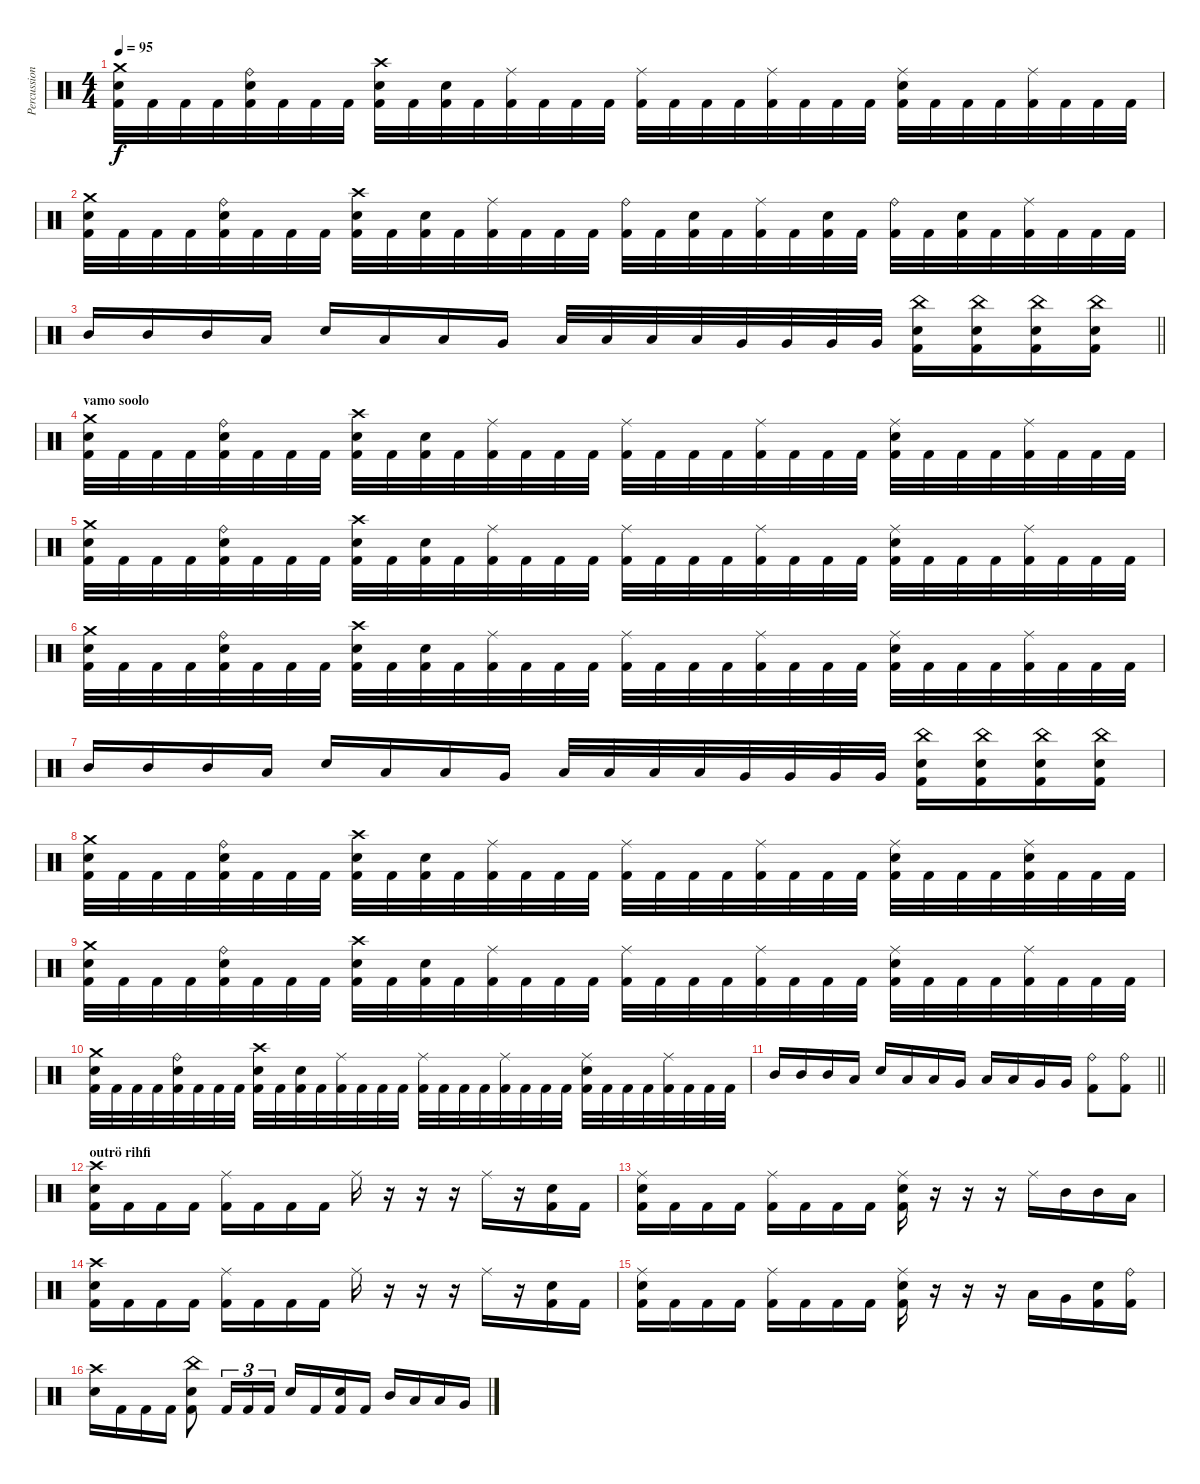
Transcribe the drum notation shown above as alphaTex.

\track ("Percussion" "Percussion") {instrument percussion}
\staff {score}
\articulation defaults
\ts (4 4)
\tempo 95
\clef neutral
\ks c
("Crash medium (hit)" "Electric Snare (hit)" "Kick (hit) 2").32{dy f} "Kick (hit) 2".32 "Kick (hit) 2".32 "Kick (hit) 2".32 ("Ride (bell)" "Electric Snare (hit)" "Kick (hit) 2").32 "Kick (hit) 2".32 "Kick (hit) 2".32 "Kick (hit) 2".32 ("Crash high (hit)" "Electric Snare (hit)" "Kick (hit) 2").32 "Kick (hit) 2".32 ("Electric Snare (hit)" "Kick (hit) 2").32 "Kick (hit) 2".32 ("Ride (middle)" "Kick (hit) 2").32 "Kick (hit) 2".32 "Kick (hit) 2".32 "Kick (hit) 2".32 ("Ride (middle)" "Kick (hit) 2").32 "Kick (hit) 2".32 "Kick (hit) 2".32 "Kick (hit) 2".32 ("Ride (middle)" "Kick (hit) 2").32 "Kick (hit) 2".32 "Kick (hit) 2".32 "Kick (hit) 2".32 ("Ride (middle)" "Electric Snare (hit)" "Kick (hit) 2").32 "Kick (hit) 2".32 "Kick (hit) 2".32 "Kick (hit) 2".32 ("Ride (middle)" "Kick (hit) 2").32 "Kick (hit) 2".32 "Kick (hit) 2".32 "Kick (hit) 2".32 |
("Crash medium (hit)" "Electric Snare (hit)" "Kick (hit) 2").32 "Kick (hit) 2".32 "Kick (hit) 2".32 "Kick (hit) 2".32 ("Ride (bell)" "Electric Snare (hit)" "Kick (hit) 2").32 "Kick (hit) 2".32 "Kick (hit) 2".32 "Kick (hit) 2".32 ("Crash high (hit)" "Electric Snare (hit)" "Kick (hit) 2").32 "Kick (hit) 2".32 ("Electric Snare (hit)" "Kick (hit) 2").32 "Kick (hit) 2".32 ("Ride (middle)" "Kick (hit) 2").32 "Kick (hit) 2".32 "Kick (hit) 2".32 "Kick (hit) 2".32 ("Ride (bell)" "Kick (hit) 2").32 "Kick (hit) 2".32 ("Electric Snare (hit)" "Kick (hit) 2").32 "Kick (hit) 2".32 ("Ride (middle)" "Kick (hit) 2").32 "Kick (hit) 2".32 ("Electric Snare (hit)" "Kick (hit) 2").32 "Kick (hit) 2".32 ("Ride (bell)" "Kick (hit) 2").32 "Kick (hit) 2".32 ("Electric Snare (hit)" "Kick (hit) 2").32 "Kick (hit) 2".32 ("Ride (middle)" "Kick (hit) 2").32 "Kick (hit) 2".32 "Kick (hit) 2".32 "Kick (hit) 2".32 |
\barLineRight lightlight "Mid Tom (hit)".16 "Mid Tom (hit)".16 "Mid Tom (hit)".16 "Low Tom (hit)".16 "Electric Snare (hit)".16 "Low Tom (hit)".16 "Low Tom (hit)".16 "Very Low Tom (hit)".16 "Low Tom (hit)".32 "Low Tom (hit)".32 "Low Tom (hit)".32 "Low Tom (hit)".32 "Very Low Tom (hit)".32 "Very Low Tom (hit)".32 "Very Low Tom (hit)".32 "Very Low Tom (hit)".32
("China (hit)" "Electric Snare (hit)" "Kick (hit) 2").16 ("China (hit)" "Electric Snare (hit)" "Kick (hit) 2").16 ("China (hit)" "Electric Snare (hit)" "Kick (hit) 2").16 ("China (hit)" "Electric Snare (hit)" "Kick (hit) 2").16 |
\section ("" "vamo soolo")
("Crash medium (hit)" "Electric Snare (hit)" "Kick (hit) 2").32 "Kick (hit) 2".32 "Kick (hit) 2".32 "Kick (hit) 2".32 ("Ride (bell)" "Electric Snare (hit)" "Kick (hit) 2").32 "Kick (hit) 2".32 "Kick (hit) 2".32 "Kick (hit) 2".32 ("Crash high (hit)" "Electric Snare (hit)" "Kick (hit) 2").32 "Kick (hit) 2".32 ("Electric Snare (hit)" "Kick (hit) 2").32 "Kick (hit) 2".32 ("Ride (middle)" "Kick (hit) 2").32 "Kick (hit) 2".32 "Kick (hit) 2".32 "Kick (hit) 2".32 ("Ride (middle)" "Kick (hit) 2").32 "Kick (hit) 2".32 "Kick (hit) 2".32 "Kick (hit) 2".32 ("Ride (middle)" "Kick (hit) 2").32 "Kick (hit) 2".32 "Kick (hit) 2".32 "Kick (hit) 2".32 ("Ride (middle)" "Electric Snare (hit)" "Kick (hit) 2").32 "Kick (hit) 2".32 "Kick (hit) 2".32 "Kick (hit) 2".32 ("Ride (middle)" "Kick (hit) 2").32 "Kick (hit) 2".32 "Kick (hit) 2".32 "Kick (hit) 2".32 |
("Crash medium (hit)" "Electric Snare (hit)" "Kick (hit) 2").32 "Kick (hit) 2".32 "Kick (hit) 2".32 "Kick (hit) 2".32 ("Ride (bell)" "Electric Snare (hit)" "Kick (hit) 2").32 "Kick (hit) 2".32 "Kick (hit) 2".32 "Kick (hit) 2".32 ("Crash high (hit)" "Electric Snare (hit)" "Kick (hit) 2").32 "Kick (hit) 2".32 ("Electric Snare (hit)" "Kick (hit) 2").32 "Kick (hit) 2".32 ("Ride (middle)" "Kick (hit) 2").32 "Kick (hit) 2".32 "Kick (hit) 2".32 "Kick (hit) 2".32 ("Ride (middle)" "Kick (hit) 2").32 "Kick (hit) 2".32 "Kick (hit) 2".32 "Kick (hit) 2".32 ("Ride (middle)" "Kick (hit) 2").32 "Kick (hit) 2".32 "Kick (hit) 2".32 "Kick (hit) 2".32 ("Ride (middle)" "Electric Snare (hit)" "Kick (hit) 2").32 "Kick (hit) 2".32 "Kick (hit) 2".32 "Kick (hit) 2".32 ("Ride (middle)" "Kick (hit) 2").32 "Kick (hit) 2".32 "Kick (hit) 2".32 "Kick (hit) 2".32 |
("Crash medium (hit)" "Electric Snare (hit)" "Kick (hit) 2").32 "Kick (hit) 2".32 "Kick (hit) 2".32 "Kick (hit) 2".32 ("Ride (bell)" "Electric Snare (hit)" "Kick (hit) 2").32 "Kick (hit) 2".32 "Kick (hit) 2".32 "Kick (hit) 2".32 ("Crash high (hit)" "Electric Snare (hit)" "Kick (hit) 2").32 "Kick (hit) 2".32 ("Electric Snare (hit)" "Kick (hit) 2").32 "Kick (hit) 2".32 ("Ride (middle)" "Kick (hit) 2").32 "Kick (hit) 2".32 "Kick (hit) 2".32 "Kick (hit) 2".32 ("Ride (middle)" "Kick (hit) 2").32 "Kick (hit) 2".32 "Kick (hit) 2".32 "Kick (hit) 2".32 ("Ride (middle)" "Kick (hit) 2").32 "Kick (hit) 2".32 "Kick (hit) 2".32 "Kick (hit) 2".32 ("Ride (middle)" "Electric Snare (hit)" "Kick (hit) 2").32 "Kick (hit) 2".32 "Kick (hit) 2".32 "Kick (hit) 2".32 ("Ride (middle)" "Kick (hit) 2").32 "Kick (hit) 2".32 "Kick (hit) 2".32 "Kick (hit) 2".32 |
"Mid Tom (hit)".16 "Mid Tom (hit)".16 "Mid Tom (hit)".16 "Low Tom (hit)".16 "Electric Snare (hit)".16 "Low Tom (hit)".16 "Low Tom (hit)".16 "Very Low Tom (hit)".16 "Low Tom (hit)".32 "Low Tom (hit)".32 "Low Tom (hit)".32 "Low Tom (hit)".32 "Very Low Tom (hit)".32 "Very Low Tom (hit)".32 "Very Low Tom (hit)".32 "Very Low Tom (hit)".32 ("China (hit)" "Electric Snare (hit)" "Kick (hit) 2").16 ("China (hit)" "Electric Snare (hit)" "Kick (hit) 2").16 ("China (hit)" "Electric Snare (hit)" "Kick (hit) 2").16 ("China (hit)" "Electric Snare (hit)" "Kick (hit) 2").16 |
("Crash medium (hit)" "Electric Snare (hit)" "Kick (hit) 2").32 "Kick (hit) 2".32 "Kick (hit) 2".32 "Kick (hit) 2".32 ("Ride (bell)" "Electric Snare (hit)" "Kick (hit) 2").32 "Kick (hit) 2".32 "Kick (hit) 2".32 "Kick (hit) 2".32 ("Crash high (hit)" "Electric Snare (hit)" "Kick (hit) 2").32 "Kick (hit) 2".32 ("Electric Snare (hit)" "Kick (hit) 2").32 "Kick (hit) 2".32 ("Ride (middle)" "Kick (hit) 2").32 "Kick (hit) 2".32 "Kick (hit) 2".32 "Kick (hit) 2".32 ("Ride (middle)" "Kick (hit) 2").32 "Kick (hit) 2".32 "Kick (hit) 2".32 "Kick (hit) 2".32 ("Ride (middle)" "Kick (hit) 2").32 "Kick (hit) 2".32 "Kick (hit) 2".32 "Kick (hit) 2".32 ("Ride (middle)" "Electric Snare (hit)" "Kick (hit) 2").32 "Kick (hit) 2".32 "Kick (hit) 2".32 "Kick (hit) 2".32 ("Ride (middle)" "Electric Snare (hit)" "Kick (hit) 2").32 "Kick (hit) 2".32 "Kick (hit) 2".32 "Kick (hit) 2".32 |
("Crash medium (hit)" "Electric Snare (hit)" "Kick (hit) 2").32 "Kick (hit) 2".32 "Kick (hit) 2".32 "Kick (hit) 2".32 ("Ride (bell)" "Electric Snare (hit)" "Kick (hit) 2").32 "Kick (hit) 2".32 "Kick (hit) 2".32 "Kick (hit) 2".32 ("Crash high (hit)" "Electric Snare (hit)" "Kick (hit) 2").32 "Kick (hit) 2".32 ("Electric Snare (hit)" "Kick (hit) 2").32 "Kick (hit) 2".32 ("Ride (middle)" "Kick (hit) 2").32 "Kick (hit) 2".32 "Kick (hit) 2".32 "Kick (hit) 2".32 ("Ride (middle)" "Kick (hit) 2").32 "Kick (hit) 2".32 "Kick (hit) 2".32 "Kick (hit) 2".32 ("Ride (middle)" "Kick (hit) 2").32 "Kick (hit) 2".32 "Kick (hit) 2".32 "Kick (hit) 2".32 ("Ride (middle)" "Electric Snare (hit)" "Kick (hit) 2").32 "Kick (hit) 2".32 "Kick (hit) 2".32 "Kick (hit) 2".32 ("Ride (middle)" "Kick (hit) 2").32 "Kick (hit) 2".32 "Kick (hit) 2".32 "Kick (hit) 2".32 |
("Crash medium (hit)" "Electric Snare (hit)" "Kick (hit) 2").32 "Kick (hit) 2".32 "Kick (hit) 2".32 "Kick (hit) 2".32 ("Ride (bell)" "Electric Snare (hit)" "Kick (hit) 2").32 "Kick (hit) 2".32 "Kick (hit) 2".32 "Kick (hit) 2".32 ("Crash high (hit)" "Electric Snare (hit)" "Kick (hit) 2").32 "Kick (hit) 2".32 ("Electric Snare (hit)" "Kick (hit) 2").32 "Kick (hit) 2".32 ("Ride (middle)" "Kick (hit) 2").32 "Kick (hit) 2".32 "Kick (hit) 2".32 "Kick (hit) 2".32 ("Ride (middle)" "Kick (hit) 2").32 "Kick (hit) 2".32 "Kick (hit) 2".32 "Kick (hit) 2".32 ("Ride (middle)" "Kick (hit) 2").32 "Kick (hit) 2".32 "Kick (hit) 2".32 "Kick (hit) 2".32 ("Ride (middle)" "Electric Snare (hit)" "Kick (hit) 2").32 "Kick (hit) 2".32 "Kick (hit) 2".32 "Kick (hit) 2".32 ("Ride (middle)" "Kick (hit) 2").32 "Kick (hit) 2".32 "Kick (hit) 2".32 "Kick (hit) 2".32 |
\barLineRight lightlight "Mid Tom (hit)".16 "Mid Tom (hit)".16 "Mid Tom (hit)".16 "Low Tom (hit)".16 "Electric Snare (hit)".16 "Low Tom (hit)".16 "Low Tom (hit)".16 "Very Low Tom (hit)".16 "Low Tom (hit)".16 "Low Tom (hit)".16 "Very Low Tom (hit)".16 "Very Low Tom (hit)".16
("Ride (bell)" "Kick (hit) 2").8 ("Ride (bell)" "Kick (hit) 2").8 |
\section ("" "outrö rihfi")
("Crash high (hit)" "Electric Snare (hit)" "Kick (hit) 2").16 "Kick (hit) 2".16 "Kick (hit) 2".16 "Kick (hit) 2".16 ("Ride (middle)" "Kick (hit) 2").16 "Kick (hit) 2".16 "Kick (hit) 2".16 "Kick (hit) 2".16 "Ride (middle)".16 r.16 r.16 r.16 "Ride (middle)".16 r.16 ("Electric Snare (hit)" "Kick (hit) 2").16 "Kick (hit) 2".16 |
("Ride (middle)" "Electric Snare (hit)" "Kick (hit) 2").16 "Kick (hit) 2".16 "Kick (hit) 2".16 "Kick (hit) 2".16 ("Ride (middle)" "Kick (hit) 2").16 "Kick (hit) 2".16 "Kick (hit) 2".16 "Kick (hit) 2".16 ("Ride (middle)" "Electric Snare (hit)" "Kick (hit) 2").16 r.16 r.16 r.16 "Ride (middle)".16 "Mid Tom (hit)".16 "Mid Tom (hit)".16 "Low Tom (hit)".16 |
("Crash high (hit)" "Electric Snare (hit)" "Kick (hit) 2").16 "Kick (hit) 2".16 "Kick (hit) 2".16 "Kick (hit) 2".16 ("Ride (middle)" "Kick (hit) 2").16 "Kick (hit) 2".16 "Kick (hit) 2".16 "Kick (hit) 2".16 "Ride (middle)".16 r.16 r.16 r.16 "Ride (middle)".16 r.16 ("Electric Snare (hit)" "Kick (hit) 2").16 "Kick (hit) 2".16 |
("Ride (middle)" "Electric Snare (hit)" "Kick (hit) 2").16 "Kick (hit) 2".16 "Kick (hit) 2".16 "Kick (hit) 2".16 ("Ride (middle)" "Kick (hit) 2").16 "Kick (hit) 2".16 "Kick (hit) 2".16 "Kick (hit) 2".16 ("Ride (middle)" "Electric Snare (hit)" "Kick (hit) 2").16 r.16 r.16 r.16 "Low Tom (hit)".16 "Very Low Tom (hit)".16 ("Electric Snare (hit)" "Kick (hit) 2").16 ("Ride (bell)" "Kick (hit) 2").16 |
("Crash high (hit)" "Electric Snare (hit)").16 "Kick (hit) 2".16 "Kick (hit) 2".16 "Kick (hit) 2".16 ("China (hit)" "Electric Snare (hit)" "Kick (hit) 2").8 "Kick (hit) 2".16{tu (3 2)} "Kick (hit) 2".16{tu (3 2)} "Kick (hit) 2".16{tu (3 2)} "Electric Snare (hit)".16 "Kick (hit) 2".16 ("Electric Snare (hit)" "Kick (hit) 2").16 "Kick (hit) 2".16 "Mid Tom (hit)".16 "Low Tom (hit)".16 "Low Tom (hit)".16 "Very Low Tom (hit)".16
